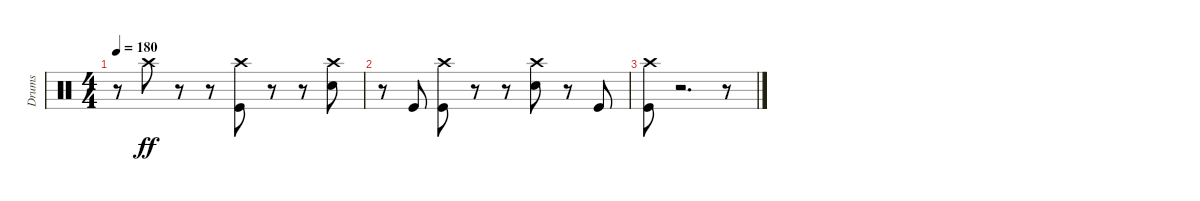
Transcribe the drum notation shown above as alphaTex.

\track ("Drums" "Drums") {instrument percussion}
\staff {score}
\articulation defaults
\ts (4 4)
\tempo 180
\clef neutral
\ks c
r.8{dy ff} "Crash high (hit)".8 r.8 r.8 ("Crash high (hit)" "Kick (hit)").8 r.8 r.8 ("Crash high (hit)" "Snare (hit) 2").8 |
r.8 "Kick (hit)".8 ("Crash high (hit)" "Kick (hit)").8 r.8 r.8 ("Crash high (hit)" "Snare (hit) 2").8 r.8 "Kick (hit)".8 |
("Crash high (hit)" "Kick (hit)").8 r.2{d volume 0} r.8
